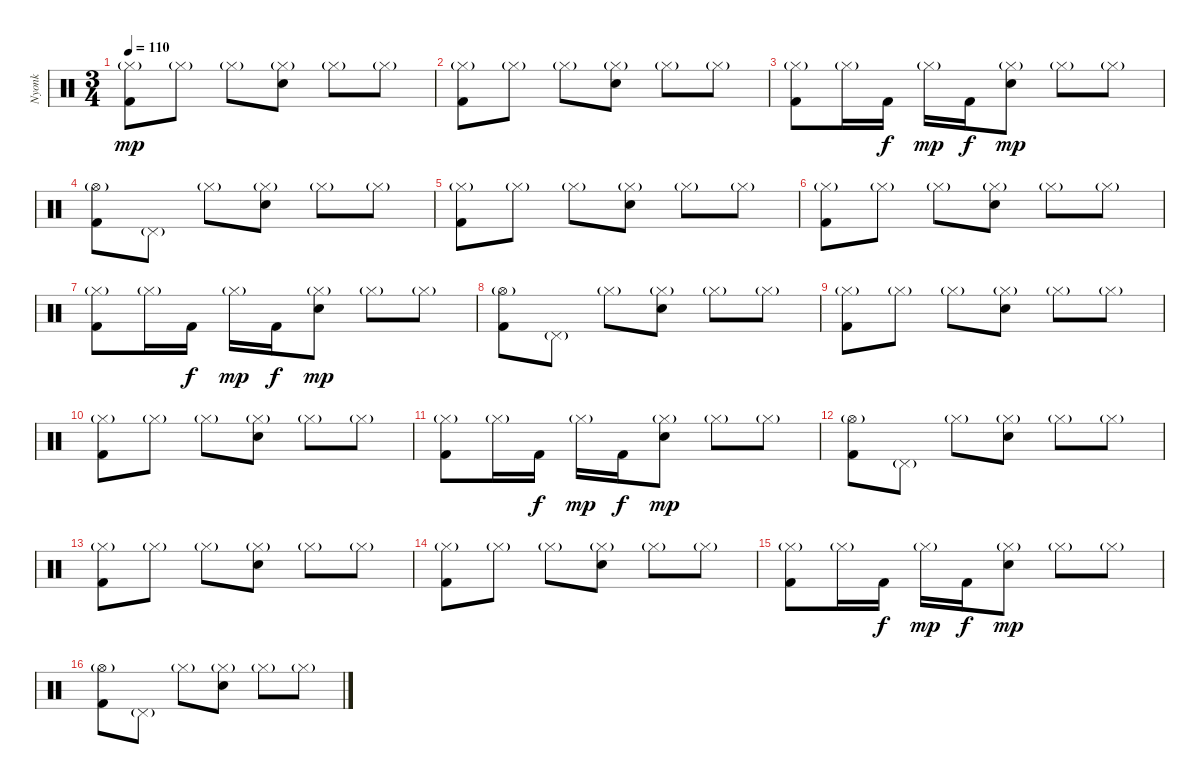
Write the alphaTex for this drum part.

\track ("Nyonk" "Nyonk") {instrument percussion}
\staff {score}
\articulation defaults
\ts (3 4)
\tempo 110
\clef neutral
\ks c
("Hi-Hat (closed)"{g} "Kick (hit) 2").8{dy mp} "Hi-Hat (closed)"{g}.8 "Hi-Hat (closed)"{g}.8 ("Hi-Hat (closed)"{g} "Electric Snare (hit)").8 "Hi-Hat (closed)"{g}.8 "Hi-Hat (closed)"{g}.8 |
("Hi-Hat (closed)"{g} "Kick (hit) 2").8 "Hi-Hat (closed)"{g}.8 "Hi-Hat (closed)"{g}.8 ("Hi-Hat (closed)"{g} "Electric Snare (hit)").8 "Hi-Hat (closed)"{g}.8 "Hi-Hat (closed)"{g}.8 |
("Hi-Hat (closed)"{g} "Kick (hit) 2").8 "Hi-Hat (closed)"{g}.16 "Kick (hit) 2".16{dy f} "Hi-Hat (closed)"{g}.16{dy mp} "Kick (hit) 2".16{dy f} ("Hi-Hat (closed)"{g} "Electric Snare (hit)").8{dy mp} "Hi-Hat (closed)"{g}.8 "Hi-Hat (closed)"{g}.8 |
("Hi-Hat (open)"{g} "Kick (hit) 2").8 "Pedal Hi-Hat (hit)"{g}.8 "Hi-Hat (closed)"{g}.8 ("Hi-Hat (closed)"{g} "Electric Snare (hit)").8 "Hi-Hat (closed)"{g}.8 "Hi-Hat (closed)"{g}.8 |
("Hi-Hat (closed)"{g} "Kick (hit) 2").8 "Hi-Hat (closed)"{g}.8 "Hi-Hat (closed)"{g}.8 ("Hi-Hat (closed)"{g} "Electric Snare (hit)").8 "Hi-Hat (closed)"{g}.8 "Hi-Hat (closed)"{g}.8 |
("Hi-Hat (closed)"{g} "Kick (hit) 2").8 "Hi-Hat (closed)"{g}.8 "Hi-Hat (closed)"{g}.8 ("Hi-Hat (closed)"{g} "Electric Snare (hit)").8 "Hi-Hat (closed)"{g}.8 "Hi-Hat (closed)"{g}.8 |
("Hi-Hat (closed)"{g} "Kick (hit) 2").8 "Hi-Hat (closed)"{g}.16 "Kick (hit) 2".16{dy f} "Hi-Hat (closed)"{g}.16{dy mp} "Kick (hit) 2".16{dy f} ("Hi-Hat (closed)"{g} "Electric Snare (hit)").8{dy mp} "Hi-Hat (closed)"{g}.8 "Hi-Hat (closed)"{g}.8 |
("Hi-Hat (open)"{g} "Kick (hit) 2").8 "Pedal Hi-Hat (hit)"{g}.8 "Hi-Hat (closed)"{g}.8 ("Hi-Hat (closed)"{g} "Electric Snare (hit)").8 "Hi-Hat (closed)"{g}.8 "Hi-Hat (closed)"{g}.8 |
("Hi-Hat (closed)"{g} "Kick (hit) 2").8 "Hi-Hat (closed)"{g}.8 "Hi-Hat (closed)"{g}.8 ("Hi-Hat (closed)"{g} "Electric Snare (hit)").8 "Hi-Hat (closed)"{g}.8 "Hi-Hat (closed)"{g}.8 |
("Hi-Hat (closed)"{g} "Kick (hit) 2").8 "Hi-Hat (closed)"{g}.8 "Hi-Hat (closed)"{g}.8 ("Hi-Hat (closed)"{g} "Electric Snare (hit)").8 "Hi-Hat (closed)"{g}.8 "Hi-Hat (closed)"{g}.8 |
("Hi-Hat (closed)"{g} "Kick (hit) 2").8 "Hi-Hat (closed)"{g}.16 "Kick (hit) 2".16{dy f} "Hi-Hat (closed)"{g}.16{dy mp} "Kick (hit) 2".16{dy f} ("Hi-Hat (closed)"{g} "Electric Snare (hit)").8{dy mp} "Hi-Hat (closed)"{g}.8 "Hi-Hat (closed)"{g}.8 |
("Hi-Hat (open)"{g} "Kick (hit) 2").8 "Pedal Hi-Hat (hit)"{g}.8 "Hi-Hat (closed)"{g}.8 ("Hi-Hat (closed)"{g} "Electric Snare (hit)").8 "Hi-Hat (closed)"{g}.8 "Hi-Hat (closed)"{g}.8 |
("Hi-Hat (closed)"{g} "Kick (hit) 2").8 "Hi-Hat (closed)"{g}.8 "Hi-Hat (closed)"{g}.8 ("Hi-Hat (closed)"{g} "Electric Snare (hit)").8 "Hi-Hat (closed)"{g}.8 "Hi-Hat (closed)"{g}.8 |
("Hi-Hat (closed)"{g} "Kick (hit) 2").8 "Hi-Hat (closed)"{g}.8 "Hi-Hat (closed)"{g}.8 ("Hi-Hat (closed)"{g} "Electric Snare (hit)").8 "Hi-Hat (closed)"{g}.8 "Hi-Hat (closed)"{g}.8 |
("Hi-Hat (closed)"{g} "Kick (hit) 2").8 "Hi-Hat (closed)"{g}.16 "Kick (hit) 2".16{dy f} "Hi-Hat (closed)"{g}.16{dy mp} "Kick (hit) 2".16{dy f} ("Hi-Hat (closed)"{g} "Electric Snare (hit)").8{dy mp} "Hi-Hat (closed)"{g}.8 "Hi-Hat (closed)"{g}.8 |
("Hi-Hat (open)"{g} "Kick (hit) 2").8 "Pedal Hi-Hat (hit)"{g}.8 "Hi-Hat (closed)"{g}.8 ("Hi-Hat (closed)"{g} "Electric Snare (hit)").8 "Hi-Hat (closed)"{g}.8 "Hi-Hat (closed)"{g}.8
